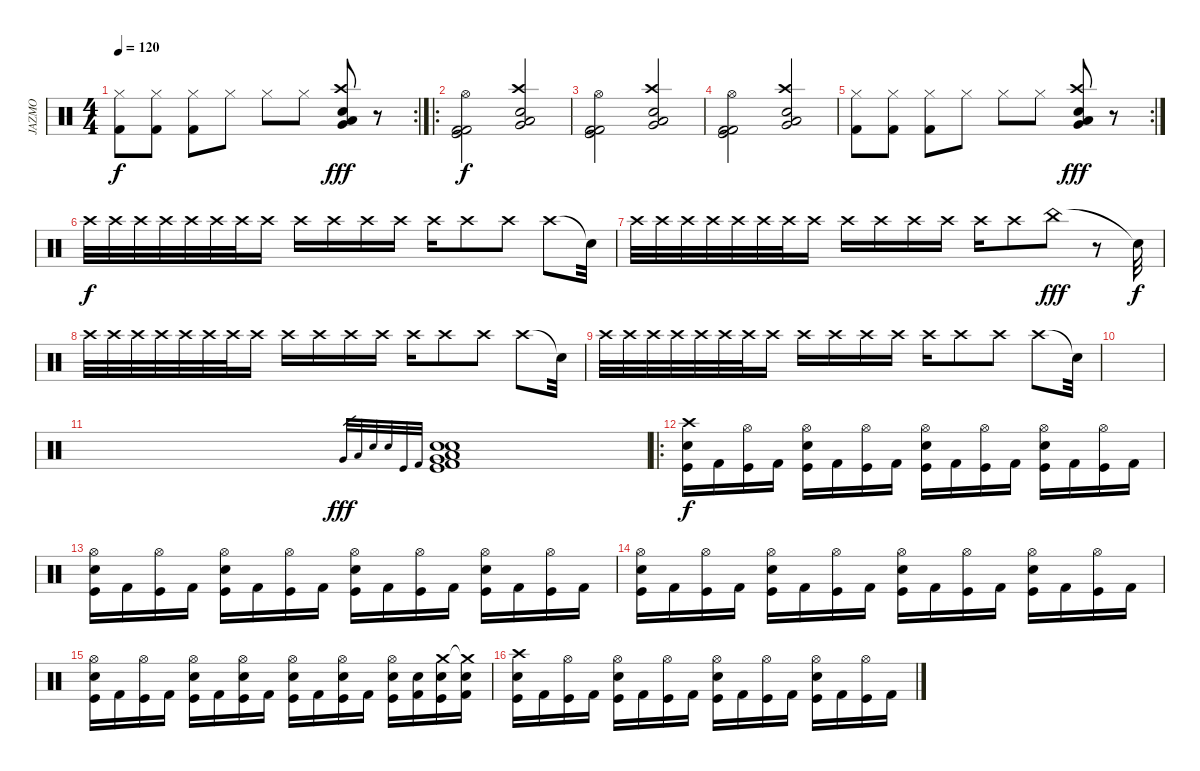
\track ("JAZMO" "JAZMO") {instrument percussion}
\staff {score}
\articulation defaults
\rc 2
\ts (4 4)
\tempo 120
\clef neutral
\ks c
("Hi-Hat (closed)" "Kick (hit) 2").8{dy f} ("Hi-Hat (closed)" "Kick (hit) 2").8 ("Hi-Hat (closed)" "Kick (hit) 2").8 "Hi-Hat (closed)".8 "Hi-Hat (closed)".8 "Hi-Hat (closed)".8 ("Very Low Tom (hit)" "Low Floor Tom (hit)" "Crash high (hit)" "Electric Snare (hit)").8{dy fff} r.8 |
\ro
("Kick (hit) 2" "Kick (hit)" "Hi-Hat (open)" "Kick (hit) 2").2{dy f} ("Very Low Tom (hit)" "Low Floor Tom (hit)" "Crash high (hit)" "Electric Snare (hit)").2 |
("Kick (hit) 2" "Kick (hit)" "Hi-Hat (open)" "Kick (hit) 2").2 ("Very Low Tom (hit)" "Low Floor Tom (hit)" "Crash high (hit)" "Electric Snare (hit)").2 |
("Kick (hit) 2" "Kick (hit)" "Hi-Hat (open)" "Kick (hit) 2").2 ("Very Low Tom (hit)" "Low Floor Tom (hit)" "Crash high (hit)" "Electric Snare (hit)").2 |
\rc 2
("Hi-Hat (closed)" "Kick (hit) 2").8 ("Hi-Hat (closed)" "Kick (hit) 2").8 ("Hi-Hat (closed)" "Kick (hit) 2").8 "Hi-Hat (closed)".8 "Hi-Hat (closed)".8 "Hi-Hat (closed)".8 ("Very Low Tom (hit)" "Low Floor Tom (hit)" "Crash high (hit)" "Electric Snare (hit)").8{dy fff} r.8 |
"Crash high (hit)".32{dy f} "Crash high (hit)".32 "Crash high (hit)".32 "Crash high (hit)".32 "Crash high (hit)".32 "Crash high (hit)".32 "Crash high (hit)".32 "Crash high (hit)".16 "Crash high (hit)".16 "Crash high (hit)".16 "Crash high (hit)".16 "Crash high (hit)".16 "Crash high (hit)".16 "Crash high (hit)".8 "Crash high (hit)".8 "Crash high (hit)".8 "Snare (hit)"{t}.32 |
"Crash high (hit)".32 "Crash high (hit)".32 "Crash high (hit)".32 "Crash high (hit)".32 "Crash high (hit)".32 "Crash high (hit)".32 "Crash high (hit)".32 "Crash high (hit)".16 "Crash high (hit)".16 "Crash high (hit)".16 "Crash high (hit)".16 "Crash high (hit)".16 "Crash high (hit)".16 "Crash high (hit)".8 "China (hit)".8{dy fff} r.8 "Snare (hit)"{t}.32{dy f} |
"Crash high (hit)".32 "Crash high (hit)".32 "Crash high (hit)".32 "Crash high (hit)".32 "Crash high (hit)".32 "Crash high (hit)".32 "Crash high (hit)".32 "Crash high (hit)".16 "Crash high (hit)".16 "Crash high (hit)".16 "Crash high (hit)".16 "Crash high (hit)".16 "Crash high (hit)".16 "Crash high (hit)".8 "Crash high (hit)".8 "Crash high (hit)".8 "Snare (hit)"{t}.32 |
"Crash high (hit)".32 "Crash high (hit)".32 "Crash high (hit)".32 "Crash high (hit)".32 "Crash high (hit)".32 "Crash high (hit)".32 "Crash high (hit)".32 "Crash high (hit)".16 "Crash high (hit)".16 "Crash high (hit)".16 "Crash high (hit)".16 "Crash high (hit)".16 "Crash high (hit)".16 "Crash high (hit)".8 "Crash high (hit)".8 "Crash high (hit)".8 "Snare (hit)"{t}.32 |
|
"Very Low Tom (hit)".32{gr dy fff} "Low Floor Tom (hit)".32{gr} "Electric Snare (hit)".32{gr} "Electric Snare (hit)".32{gr} "Kick (hit)".32{gr} "Kick (hit) 2".32{gr} ("Very Low Tom (hit)" "Low Floor Tom (hit)" "Electric Snare (hit)" "Electric Snare (hit)" "Kick (hit)" "Kick (hit) 2").1 |
\ro
("Crash high (hit)" "Electric Snare (hit)" "Kick (hit)").16{dy f} "Kick (hit) 2".16 ("Hi-Hat (open)" "Kick (hit)").16 "Kick (hit) 2".16 ("Hi-Hat (open)" "Electric Snare (hit)" "Kick (hit)").16 "Kick (hit) 2".16 ("Hi-Hat (open)" "Kick (hit)").16 "Kick (hit) 2".16 ("Hi-Hat (open)" "Electric Snare (hit)" "Kick (hit)").16 "Kick (hit) 2".16 ("Hi-Hat (open)" "Kick (hit)").16 "Kick (hit) 2".16 ("Hi-Hat (open)" "Electric Snare (hit)" "Kick (hit)").16 "Kick (hit) 2".16 ("Hi-Hat (open)" "Kick (hit)").16 "Kick (hit) 2".16 |
("Hi-Hat (open)" "Electric Snare (hit)" "Kick (hit)").16 "Kick (hit) 2".16 ("Hi-Hat (open)" "Kick (hit)").16 "Kick (hit) 2".16 ("Hi-Hat (open)" "Electric Snare (hit)" "Kick (hit)").16 "Kick (hit) 2".16 ("Hi-Hat (open)" "Kick (hit)").16 "Kick (hit) 2".16 ("Hi-Hat (open)" "Electric Snare (hit)" "Kick (hit)").16 "Kick (hit) 2".16 ("Hi-Hat (open)" "Kick (hit)").16 "Kick (hit) 2".16 ("Hi-Hat (open)" "Electric Snare (hit)" "Kick (hit)").16 "Kick (hit) 2".16 ("Hi-Hat (open)" "Kick (hit)").16 "Kick (hit) 2".16 |
("Hi-Hat (open)" "Electric Snare (hit)" "Kick (hit)").16 "Kick (hit) 2".16 ("Hi-Hat (open)" "Kick (hit)").16 "Kick (hit) 2".16 ("Hi-Hat (open)" "Electric Snare (hit)" "Kick (hit)").16 "Kick (hit) 2".16 ("Hi-Hat (open)" "Kick (hit)").16 "Kick (hit) 2".16 ("Hi-Hat (open)" "Electric Snare (hit)" "Kick (hit)").16 "Kick (hit) 2".16 ("Hi-Hat (open)" "Kick (hit)").16 "Kick (hit) 2".16 ("Hi-Hat (open)" "Electric Snare (hit)" "Kick (hit)").16 "Kick (hit) 2".16 ("Hi-Hat (open)" "Kick (hit)").16 "Kick (hit) 2".16 |
("Hi-Hat (open)" "Electric Snare (hit)" "Kick (hit)").16 "Kick (hit) 2".16 ("Hi-Hat (open)" "Kick (hit)").16 "Kick (hit) 2".16 ("Hi-Hat (open)" "Electric Snare (hit)" "Kick (hit)").16 "Kick (hit) 2".16 ("Hi-Hat (open)" "Electric Snare (hit)" "Kick (hit)").16 "Kick (hit) 2".16 ("Hi-Hat (open)" "Electric Snare (hit)" "Kick (hit)").16 "Kick (hit) 2".16 ("Hi-Hat (open)" "Electric Snare (hit)" "Kick (hit)").16 "Kick (hit) 2".16 ("Hi-Hat (open)" "Electric Snare (hit)" "Kick (hit)").16 ("Electric Snare (hit)" "Kick (hit) 2").16 ("Crash medium (hit)" "Electric Snare (hit)" "Kick (hit)").16 ("Crash medium (hit)"{t} "Electric Snare (hit)" "Kick (hit) 2").16 |
("Crash high (hit)" "Electric Snare (hit)" "Kick (hit)").16 "Kick (hit) 2".16 ("Hi-Hat (open)" "Kick (hit)").16 "Kick (hit) 2".16 ("Hi-Hat (open)" "Electric Snare (hit)" "Kick (hit)").16 "Kick (hit) 2".16 ("Hi-Hat (open)" "Kick (hit)").16 "Kick (hit) 2".16 ("Hi-Hat (open)" "Electric Snare (hit)" "Kick (hit)").16 "Kick (hit) 2".16 ("Hi-Hat (open)" "Kick (hit)").16 "Kick (hit) 2".16 ("Hi-Hat (open)" "Electric Snare (hit)" "Kick (hit)").16 "Kick (hit) 2".16 ("Hi-Hat (open)" "Kick (hit)").16 "Kick (hit) 2".16
